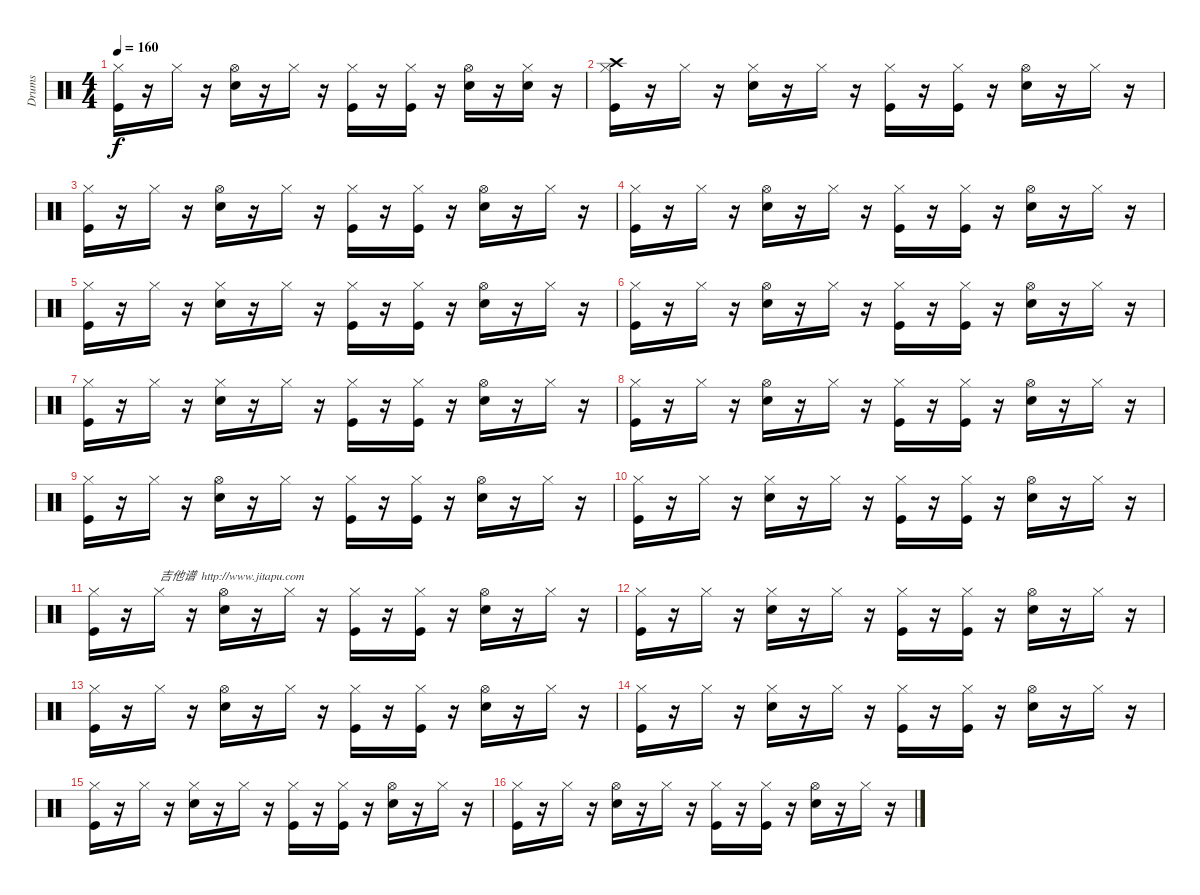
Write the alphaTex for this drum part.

\track ("Drums" "Drums") {instrument percussion}
\staff {score}
\articulation defaults
\ts (4 4)
\tempo 160
\clef neutral
\ks c
("Hi-Hat (closed)" "Kick (hit)").16{dy f} r.16 "Hi-Hat (closed)".16 r.16 ("Hi-Hat (open)" "Snare (hit) 2").16 r.16 "Hi-Hat (closed)".16 r.16 ("Hi-Hat (closed)" "Kick (hit)").16 r.16 ("Kick (hit)" "Hi-Hat (closed)").16 r.16 ("Hi-Hat (open)" "Snare (hit) 2").16 r.16 ("Snare (hit) 2" "Hi-Hat (closed)").16 r.16 |
("Crash high (hit)" "Hi-Hat (closed)" "Kick (hit)").16 r.16 "Hi-Hat (closed)".16 r.16 ("Hi-Hat (closed)" "Snare (hit) 2").16 r.16 "Hi-Hat (closed)".16 r.16 ("Hi-Hat (closed)" "Kick (hit)").16 r.16 ("Kick (hit)" "Hi-Hat (closed)").16 r.16 ("Hi-Hat (open)" "Snare (hit) 2").16 r.16 "Hi-Hat (closed)".16 r.16 |
("Hi-Hat (closed)" "Kick (hit)").16 r.16 "Hi-Hat (closed)".16 r.16 ("Hi-Hat (open)" "Snare (hit) 2").16 r.16 "Hi-Hat (closed)".16 r.16 ("Hi-Hat (closed)" "Kick (hit)").16 r.16 ("Kick (hit)" "Hi-Hat (closed)").16 r.16 ("Hi-Hat (open)" "Snare (hit) 2").16 r.16 "Hi-Hat (closed)".16 r.16 |
("Hi-Hat (closed)" "Kick (hit)").16 r.16 "Hi-Hat (closed)".16 r.16 ("Hi-Hat (open)" "Snare (hit) 2").16 r.16 "Hi-Hat (closed)".16 r.16 ("Hi-Hat (closed)" "Kick (hit)").16 r.16 ("Kick (hit)" "Hi-Hat (closed)").16 r.16 ("Hi-Hat (open)" "Snare (hit) 2").16 r.16 "Hi-Hat (closed)".16 r.16 |
("Hi-Hat (closed)" "Kick (hit)").16 r.16 "Hi-Hat (closed)".16 r.16 ("Hi-Hat (closed)" "Snare (hit) 2").16 r.16 "Hi-Hat (closed)".16 r.16 ("Hi-Hat (closed)" "Kick (hit)").16 r.16 ("Kick (hit)" "Hi-Hat (closed)").16 r.16 ("Hi-Hat (open)" "Snare (hit) 2").16 r.16 "Hi-Hat (closed)".16 r.16 |
("Hi-Hat (closed)" "Kick (hit)").16 r.16 "Hi-Hat (closed)".16 r.16 ("Hi-Hat (open)" "Snare (hit) 2").16 r.16 "Hi-Hat (closed)".16 r.16 ("Hi-Hat (closed)" "Kick (hit)").16 r.16 ("Kick (hit)" "Hi-Hat (closed)").16 r.16 ("Hi-Hat (open)" "Snare (hit) 2").16 r.16 "Hi-Hat (closed)".16 r.16 |
("Hi-Hat (closed)" "Kick (hit)").16 r.16 "Hi-Hat (closed)".16 r.16 ("Hi-Hat (closed)" "Snare (hit) 2").16 r.16 "Hi-Hat (closed)".16 r.16 ("Hi-Hat (closed)" "Kick (hit)").16 r.16 ("Kick (hit)" "Hi-Hat (closed)").16 r.16 ("Hi-Hat (open)" "Snare (hit) 2").16 r.16 "Hi-Hat (closed)".16 r.16 |
("Hi-Hat (closed)" "Kick (hit)").16 r.16 "Hi-Hat (closed)".16 r.16 ("Hi-Hat (open)" "Snare (hit) 2").16 r.16 "Hi-Hat (closed)".16 r.16 ("Hi-Hat (closed)" "Kick (hit)").16 r.16 ("Kick (hit)" "Hi-Hat (closed)").16 r.16 ("Hi-Hat (open)" "Snare (hit) 2").16 r.16 "Hi-Hat (closed)".16 r.16 |
("Hi-Hat (closed)" "Kick (hit)").16 r.16 "Hi-Hat (closed)".16 r.16 ("Hi-Hat (open)" "Snare (hit) 2").16 r.16 "Hi-Hat (closed)".16 r.16 ("Hi-Hat (closed)" "Kick (hit)").16 r.16 ("Kick (hit)" "Hi-Hat (closed)").16 r.16 ("Hi-Hat (open)" "Snare (hit) 2").16 r.16 "Hi-Hat (closed)".16 r.16 |
("Hi-Hat (closed)" "Kick (hit)").16 r.16 "Hi-Hat (closed)".16 r.16 ("Hi-Hat (closed)" "Snare (hit) 2").16 r.16 "Hi-Hat (closed)".16 r.16 ("Hi-Hat (closed)" "Kick (hit)").16 r.16 ("Kick (hit)" "Hi-Hat (closed)").16 r.16 ("Hi-Hat (open)" "Snare (hit) 2").16 r.16 "Hi-Hat (closed)".16 r.16 |
("Hi-Hat (closed)" "Kick (hit)").16 r.16 "Hi-Hat (closed)".16{txt "吉他谱  http://www.jitapu.com"} r.16 ("Hi-Hat (open)" "Snare (hit) 2").16 r.16 "Hi-Hat (closed)".16 r.16 ("Hi-Hat (closed)" "Kick (hit)").16 r.16 ("Kick (hit)" "Hi-Hat (closed)").16 r.16 ("Hi-Hat (open)" "Snare (hit) 2").16 r.16 "Hi-Hat (closed)".16 r.16 |
("Hi-Hat (closed)" "Kick (hit)").16 r.16 "Hi-Hat (closed)".16 r.16 ("Hi-Hat (closed)" "Snare (hit) 2").16 r.16 "Hi-Hat (closed)".16 r.16 ("Hi-Hat (closed)" "Kick (hit)").16 r.16 ("Kick (hit)" "Hi-Hat (closed)").16 r.16 ("Hi-Hat (open)" "Snare (hit) 2").16 r.16 "Hi-Hat (closed)".16 r.16 |
("Hi-Hat (closed)" "Kick (hit)").16 r.16 "Hi-Hat (closed)".16 r.16 ("Hi-Hat (open)" "Snare (hit) 2").16 r.16 "Hi-Hat (closed)".16 r.16 ("Hi-Hat (closed)" "Kick (hit)").16 r.16 ("Kick (hit)" "Hi-Hat (closed)").16 r.16 ("Hi-Hat (open)" "Snare (hit) 2").16 r.16 "Hi-Hat (closed)".16 r.16 |
("Hi-Hat (closed)" "Kick (hit)").16 r.16 "Hi-Hat (closed)".16 r.16 ("Hi-Hat (closed)" "Snare (hit) 2").16 r.16 "Hi-Hat (closed)".16 r.16 ("Hi-Hat (closed)" "Kick (hit)").16 r.16 ("Kick (hit)" "Hi-Hat (closed)").16 r.16 ("Hi-Hat (open)" "Snare (hit) 2").16 r.16 "Hi-Hat (closed)".16 r.16 |
("Hi-Hat (closed)" "Kick (hit)").16 r.16 "Hi-Hat (closed)".16 r.16 ("Hi-Hat (closed)" "Snare (hit) 2").16 r.16 "Hi-Hat (closed)".16 r.16 ("Hi-Hat (closed)" "Kick (hit)").16 r.16 ("Kick (hit)" "Hi-Hat (closed)").16 r.16 ("Hi-Hat (open)" "Snare (hit) 2").16 r.16 "Hi-Hat (closed)".16 r.16 |
("Hi-Hat (closed)" "Kick (hit)").16 r.16 "Hi-Hat (closed)".16 r.16 ("Hi-Hat (open)" "Snare (hit) 2").16 r.16 "Hi-Hat (closed)".16 r.16 ("Hi-Hat (closed)" "Kick (hit)").16 r.16 ("Kick (hit)" "Hi-Hat (closed)").16 r.16 ("Hi-Hat (open)" "Snare (hit) 2").16 r.16 "Hi-Hat (closed)".16 r.16
